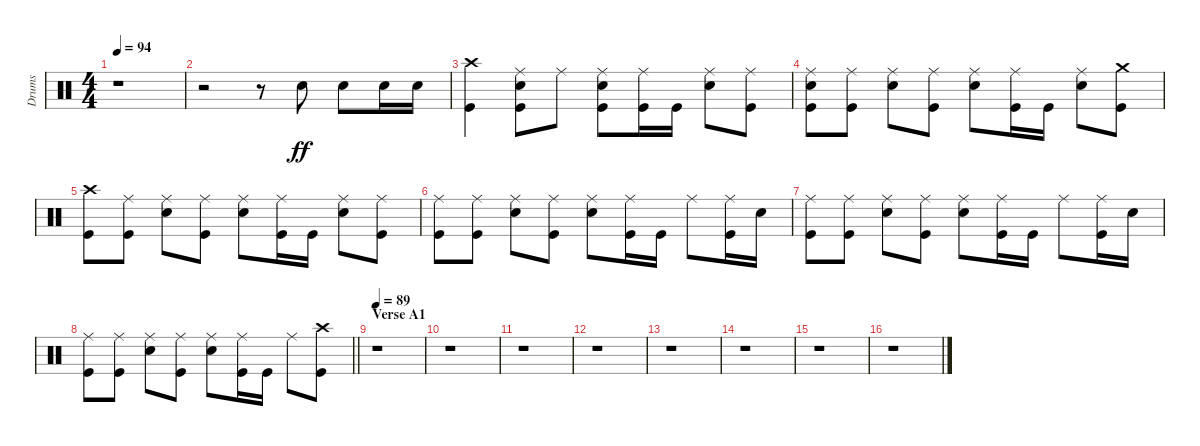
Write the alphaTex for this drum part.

\track ("Drums" "Drums") {instrument percussion}
\staff {score}
\articulation defaults
\ts (4 4)
\tempo 94
\clef neutral
\ks c
r.1{dy ff} |
r.2 r.8 "Electric Snare (hit)".8 "Electric Snare (hit)".8 "Electric Snare (hit)".16 "Electric Snare (hit)".16 |
("Crash high (hit)" "Kick (hit)").4 ("Ride (middle)" "Electric Snare (hit)" "Kick (hit)").8 "Ride (middle)".8 ("Ride (middle)" "Electric Snare (hit)" "Kick (hit)").8 ("Ride (middle)" "Kick (hit)").16 "Kick (hit)".16 ("Ride (middle)" "Electric Snare (hit)").8 ("Ride (middle)" "Kick (hit)").8 |
("Ride (middle)" "Electric Snare (hit)" "Kick (hit)").8 ("Ride (middle)" "Kick (hit)").8 ("Ride (middle)" "Electric Snare (hit)").8 ("Ride (middle)" "Kick (hit)").8 ("Ride (middle)" "Electric Snare (hit)").8 ("Ride (middle)" "Kick (hit)").16 "Kick (hit)".16 ("Ride (middle)" "Electric Snare (hit)").8 ("Crash medium (hit)" "Kick (hit)").8 |
("Crash high (hit)" "Kick (hit)").8 ("Ride (middle)" "Kick (hit)").8 ("Ride (middle)" "Electric Snare (hit)").8 ("Ride (middle)" "Kick (hit)").8 ("Ride (middle)" "Electric Snare (hit)").8 ("Ride (middle)" "Kick (hit)").16 "Kick (hit)".16 ("Ride (middle)" "Electric Snare (hit)").8 ("Ride (middle)" "Kick (hit)").8 |
("Ride (middle)" "Kick (hit)").8 ("Ride (middle)" "Kick (hit)").8 ("Ride (middle)" "Electric Snare (hit)").8 ("Ride (middle)" "Kick (hit)").8 ("Ride (middle)" "Electric Snare (hit)").8 ("Ride (middle)" "Kick (hit)").16 "Kick (hit)".16 "Ride (middle)".8 ("Ride (middle)" "Kick (hit)").16 "Electric Snare (hit)".16 |
("Ride (middle)" "Kick (hit)").8 ("Ride (middle)" "Kick (hit)").8 ("Ride (middle)" "Electric Snare (hit)").8 ("Ride (middle)" "Kick (hit)").8 ("Ride (middle)" "Electric Snare (hit)").8 ("Ride (middle)" "Kick (hit)").16 "Kick (hit)".16 "Ride (middle)".8 ("Ride (middle)" "Kick (hit)").16 "Electric Snare (hit)".16 |
\barLineRight lightlight
("Ride (middle)" "Kick (hit)").8 ("Ride (middle)" "Kick (hit)").8 ("Ride (middle)" "Electric Snare (hit)").8 ("Ride (middle)" "Kick (hit)").8 ("Ride (middle)" "Electric Snare (hit)").8 ("Ride (middle)" "Kick (hit)").16 "Kick (hit)".16 "Ride (middle)".8 ("Crash high (hit)" "Kick (hit)").8 |
\section ("" "Verse A1")
\tempo 89
r.1 |
r.1 |
r.1 |
r.1 |
r.1 |
r.1 |
r.1 |
r.1
